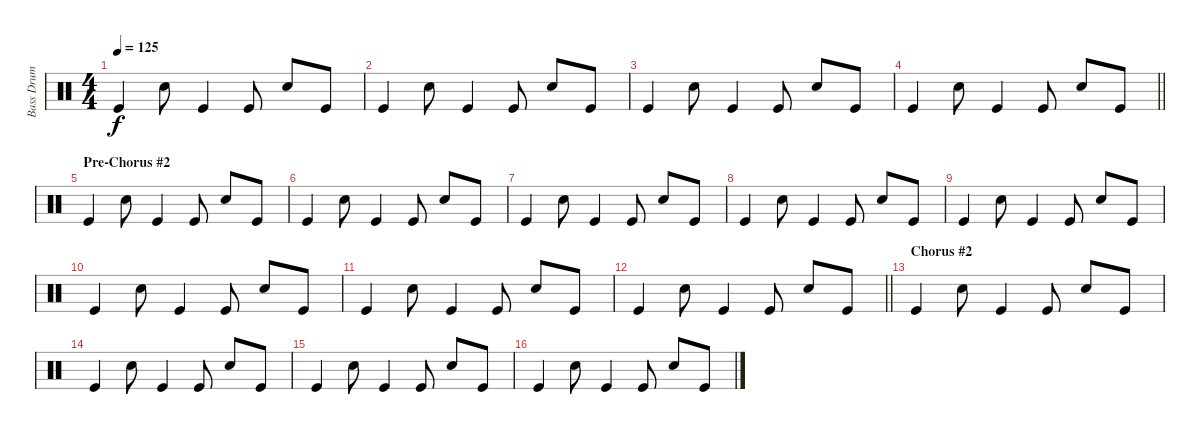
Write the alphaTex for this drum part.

\track ("Bass Drum and Clap" "Bass Drum ") {instrument percussion}
\staff {score}
\articulation defaults
\ts (4 4)
\tempo 125
\clef neutral
\ks c "Kick (hit)".4{dy f} "Hand Clap (hit)".8 "Kick (hit)".4 "Kick (hit)".8 "Hand Clap (hit)".8 "Kick (hit)".8
|
"Kick (hit)".4 "Hand Clap (hit)".8 "Kick (hit)".4 "Kick (hit)".8 "Hand Clap (hit)".8 "Kick (hit)".8 |
"Kick (hit)".4 "Hand Clap (hit)".8 "Kick (hit)".4 "Kick (hit)".8 "Hand Clap (hit)".8 "Kick (hit)".8 |
\barLineRight lightlight "Kick (hit)".4 "Hand Clap (hit)".8 "Kick (hit)".4 "Kick (hit)".8 "Hand Clap (hit)".8 "Kick (hit)".8
|
\section ("" "Pre-Chorus #2")
"Kick (hit)".4 "Hand Clap (hit)".8 "Kick (hit)".4 "Kick (hit)".8 "Hand Clap (hit)".8 "Kick (hit)".8 |
"Kick (hit)".4 "Hand Clap (hit)".8 "Kick (hit)".4 "Kick (hit)".8 "Hand Clap (hit)".8 "Kick (hit)".8 |
"Kick (hit)".4 "Hand Clap (hit)".8 "Kick (hit)".4 "Kick (hit)".8 "Hand Clap (hit)".8 "Kick (hit)".8 |
"Kick (hit)".4 "Hand Clap (hit)".8 "Kick (hit)".4 "Kick (hit)".8 "Hand Clap (hit)".8 "Kick (hit)".8 |
"Kick (hit)".4 "Hand Clap (hit)".8 "Kick (hit)".4 "Kick (hit)".8 "Hand Clap (hit)".8 "Kick (hit)".8 |
"Kick (hit)".4 "Hand Clap (hit)".8 "Kick (hit)".4 "Kick (hit)".8 "Hand Clap (hit)".8 "Kick (hit)".8 |
"Kick (hit)".4 "Hand Clap (hit)".8 "Kick (hit)".4 "Kick (hit)".8 "Hand Clap (hit)".8 "Kick (hit)".8 |
\barLineRight lightlight "Kick (hit)".4 "Hand Clap (hit)".8 "Kick (hit)".4 "Kick (hit)".8 "Hand Clap (hit)".8 "Kick (hit)".8
|
\section ("" "Chorus #2")
"Kick (hit)".4 "Hand Clap (hit)".8 "Kick (hit)".4 "Kick (hit)".8 "Hand Clap (hit)".8 "Kick (hit)".8 |
"Kick (hit)".4 "Hand Clap (hit)".8 "Kick (hit)".4 "Kick (hit)".8 "Hand Clap (hit)".8 "Kick (hit)".8 |
"Kick (hit)".4 "Hand Clap (hit)".8 "Kick (hit)".4 "Kick (hit)".8 "Hand Clap (hit)".8 "Kick (hit)".8 |
"Kick (hit)".4 "Hand Clap (hit)".8 "Kick (hit)".4 "Kick (hit)".8 "Hand Clap (hit)".8 "Kick (hit)".8
